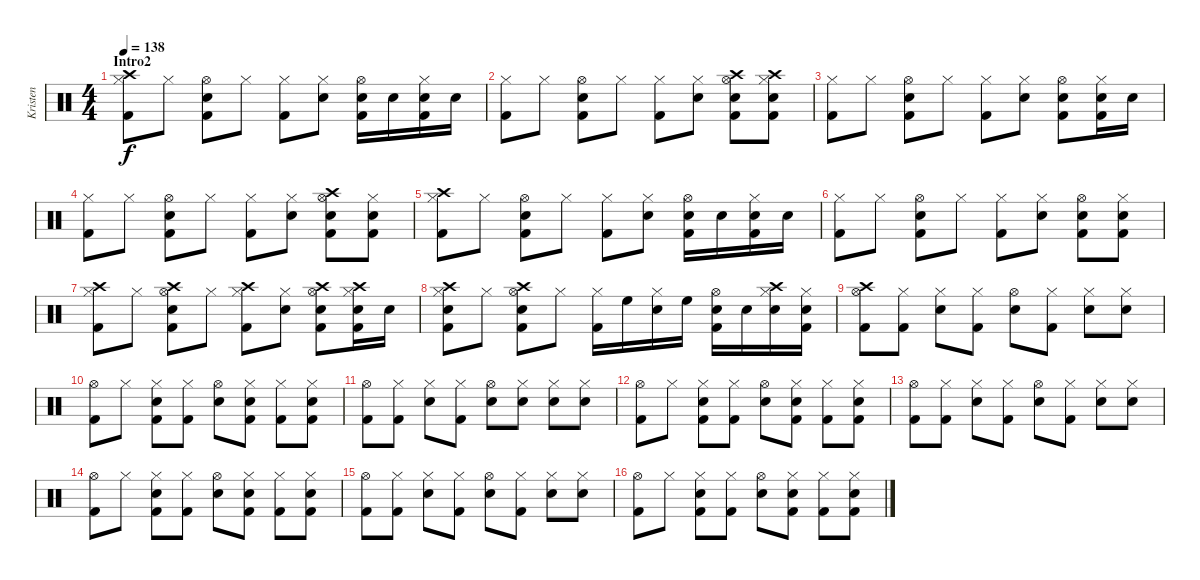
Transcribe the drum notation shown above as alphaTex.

\track ("Kristen" "Kristen") {instrument percussion}
\staff {score}
\articulation defaults
\ts (4 4)
\section ("" "Intro2")
\tempo 138
\clef neutral
\ks c
("Crash high (hit)" "Hi-Hat (closed)" "Kick (hit) 2").8{dy f} "Hi-Hat (closed)".8 ("Hi-Hat (open)" "Snare (hit) 2" "Kick (hit) 2").8 "Hi-Hat (closed)".8 ("Hi-Hat (closed)" "Kick (hit) 2").8 ("Hi-Hat (closed)" "Snare (hit) 2").8 ("Hi-Hat (open)" "Snare (hit) 2" "Kick (hit) 2").16 "Snare (hit) 2".16 ("Hi-Hat (closed)" "Snare (hit) 2" "Kick (hit) 2").16 "Snare (hit) 2".16 |
("Hi-Hat (closed)" "Kick (hit) 2").8 "Hi-Hat (closed)".8 ("Hi-Hat (open)" "Snare (hit) 2" "Kick (hit) 2").8 "Hi-Hat (closed)".8 ("Hi-Hat (closed)" "Kick (hit) 2").8 ("Hi-Hat (closed)" "Snare (hit) 2").8 ("Crash high (hit)" "Hi-Hat (open)" "Snare (hit) 2" "Kick (hit) 2").8 ("Crash high (hit)" "Hi-Hat (closed)" "Snare (hit) 2" "Kick (hit) 2").8 |
("Hi-Hat (closed)" "Kick (hit) 2").8 "Hi-Hat (closed)".8 ("Hi-Hat (open)" "Snare (hit) 2" "Kick (hit) 2").8 "Hi-Hat (closed)".8 ("Hi-Hat (closed)" "Kick (hit) 2").8 ("Hi-Hat (closed)" "Snare (hit) 2").8 ("Hi-Hat (open)" "Snare (hit) 2" "Kick (hit) 2").8 ("Hi-Hat (closed)" "Snare (hit) 2" "Kick (hit) 2").16 "Snare (hit) 2".16 |
("Hi-Hat (closed)" "Kick (hit) 2").8 "Hi-Hat (closed)".8 ("Hi-Hat (open)" "Snare (hit) 2" "Kick (hit) 2").8 "Hi-Hat (closed)".8 ("Hi-Hat (closed)" "Kick (hit) 2").8 ("Hi-Hat (closed)" "Snare (hit) 2").8 ("Crash high (hit)" "Hi-Hat (open)" "Snare (hit) 2" "Kick (hit) 2").8 ("Hi-Hat (closed)" "Snare (hit) 2" "Kick (hit) 2").8 |
("Crash high (hit)" "Hi-Hat (closed)" "Kick (hit) 2").8 "Hi-Hat (closed)".8 ("Hi-Hat (open)" "Snare (hit) 2" "Kick (hit) 2").8 "Hi-Hat (closed)".8 ("Hi-Hat (closed)" "Kick (hit) 2").8 ("Hi-Hat (closed)" "Snare (hit) 2").8 ("Hi-Hat (open)" "Snare (hit) 2" "Kick (hit) 2").16 "Snare (hit) 2".16 ("Hi-Hat (closed)" "Snare (hit) 2" "Kick (hit) 2").16 "Snare (hit) 2".16 |
("Hi-Hat (closed)" "Kick (hit) 2").8 "Hi-Hat (closed)".8 ("Hi-Hat (open)" "Snare (hit) 2" "Kick (hit) 2").8 "Hi-Hat (closed)".8 ("Hi-Hat (closed)" "Kick (hit) 2").8 ("Hi-Hat (closed)" "Snare (hit) 2").8 ("Hi-Hat (open)" "Snare (hit) 2" "Kick (hit) 2").8 ("Hi-Hat (closed)" "Snare (hit) 2" "Kick (hit) 2").8 |
("Crash high (hit)" "Hi-Hat (closed)" "Kick (hit) 2").8 "Hi-Hat (closed)".8 ("Crash high (hit)" "Hi-Hat (open)" "Snare (hit) 2" "Kick (hit) 2").8 "Hi-Hat (closed)".8 ("Crash high (hit)" "Hi-Hat (closed)" "Kick (hit) 2").8 ("Hi-Hat (closed)" "Snare (hit) 2").8 ("Crash high (hit)" "Hi-Hat (open)" "Snare (hit) 2" "Kick (hit) 2").8 ("Crash high (hit)" "Hi-Hat (closed)" "Snare (hit) 2" "Kick (hit) 2").16 "Snare (hit) 2".16 |
("Crash high (hit)" "Hi-Hat (closed)" "Snare (hit) 2" "Kick (hit) 2").8 "Hi-Hat (closed)".8 ("Crash high (hit)" "Hi-Hat (open)" "Snare (hit) 2" "Kick (hit) 2").8 "Hi-Hat (closed)".8 ("Hi-Hat (closed)" "Kick (hit) 2").16 "High Floor Tom (hit)".16 ("Hi-Hat (closed)" "Snare (hit) 2").16 "High Floor Tom (hit)".16 ("Hi-Hat (open)" "Snare (hit) 2" "Kick (hit) 2").16 "Snare (hit) 2".16 ("Crash high (hit)" "Hi-Hat (closed)" "Snare (hit) 2").16 ("Hi-Hat (closed)" "Snare (hit) 2" "Kick (hit) 2").16 |
("Crash high (hit)" "Hi-Hat (open)" "Kick (hit) 2").8 ("Hi-Hat (closed)" "Kick (hit) 2").8 ("Hi-Hat (closed)" "Snare (hit) 2").8 ("Hi-Hat (closed)" "Kick (hit) 2").8 ("Hi-Hat (open)" "Snare (hit) 2").8 ("Hi-Hat (closed)" "Kick (hit) 2").8 ("Hi-Hat (closed)" "Snare (hit) 2").8 ("Hi-Hat (closed)" "Snare (hit) 2").8 |
("Hi-Hat (open)" "Kick (hit) 2").8 "Hi-Hat (closed)".8 ("Hi-Hat (closed)" "Snare (hit) 2" "Kick (hit) 2").8 ("Hi-Hat (closed)" "Kick (hit) 2").8 ("Hi-Hat (open)" "Snare (hit) 2").8 ("Hi-Hat (closed)" "Snare (hit) 2" "Kick (hit) 2").8 ("Hi-Hat (closed)" "Kick (hit) 2").8 ("Hi-Hat (closed)" "Snare (hit) 2" "Kick (hit) 2").8 |
("Hi-Hat (open)" "Kick (hit) 2").8 ("Hi-Hat (closed)" "Kick (hit) 2").8 ("Hi-Hat (closed)" "Snare (hit) 2").8 ("Hi-Hat (closed)" "Kick (hit) 2").8 ("Hi-Hat (open)" "Snare (hit) 2").8 ("Hi-Hat (closed)" "Snare (hit) 2").8 ("Hi-Hat (closed)" "Snare (hit) 2").8 ("Hi-Hat (closed)" "Snare (hit) 2").8 |
("Hi-Hat (open)" "Kick (hit) 2").8 "Hi-Hat (closed)".8 ("Hi-Hat (closed)" "Snare (hit) 2" "Kick (hit) 2").8 ("Hi-Hat (closed)" "Kick (hit) 2").8 ("Hi-Hat (open)" "Snare (hit) 2").8 ("Hi-Hat (closed)" "Snare (hit) 2" "Kick (hit) 2").8 ("Hi-Hat (closed)" "Kick (hit) 2").8 ("Hi-Hat (closed)" "Snare (hit) 2" "Kick (hit) 2").8 |
("Hi-Hat (open)" "Kick (hit) 2").8 ("Hi-Hat (closed)" "Kick (hit) 2").8 ("Hi-Hat (closed)" "Snare (hit) 2").8 ("Hi-Hat (closed)" "Kick (hit) 2").8 ("Hi-Hat (open)" "Snare (hit) 2").8 ("Hi-Hat (closed)" "Kick (hit) 2").8 ("Hi-Hat (closed)" "Snare (hit) 2").8 ("Hi-Hat (closed)" "Snare (hit) 2").8 |
("Hi-Hat (open)" "Kick (hit) 2").8 "Hi-Hat (closed)".8 ("Hi-Hat (closed)" "Snare (hit) 2" "Kick (hit) 2").8 ("Hi-Hat (closed)" "Kick (hit) 2").8 ("Hi-Hat (open)" "Snare (hit) 2").8 ("Hi-Hat (closed)" "Snare (hit) 2" "Kick (hit) 2").8 ("Hi-Hat (closed)" "Kick (hit) 2").8 ("Hi-Hat (closed)" "Snare (hit) 2" "Kick (hit) 2").8 |
("Hi-Hat (open)" "Kick (hit) 2").8 ("Hi-Hat (closed)" "Kick (hit) 2").8 ("Hi-Hat (closed)" "Snare (hit) 2").8 ("Hi-Hat (closed)" "Kick (hit) 2").8 ("Hi-Hat (open)" "Snare (hit) 2").8 ("Hi-Hat (closed)" "Kick (hit) 2").8 ("Hi-Hat (closed)" "Snare (hit) 2").8 ("Hi-Hat (closed)" "Snare (hit) 2").8 |
("Hi-Hat (open)" "Kick (hit) 2").8 "Hi-Hat (closed)".8 ("Hi-Hat (closed)" "Snare (hit) 2" "Kick (hit) 2").8 ("Hi-Hat (closed)" "Kick (hit) 2").8 ("Hi-Hat (open)" "Snare (hit) 2").8 ("Hi-Hat (closed)" "Snare (hit) 2" "Kick (hit) 2").8 ("Hi-Hat (closed)" "Kick (hit) 2").8 ("Hi-Hat (closed)" "Snare (hit) 2" "Kick (hit) 2").8
